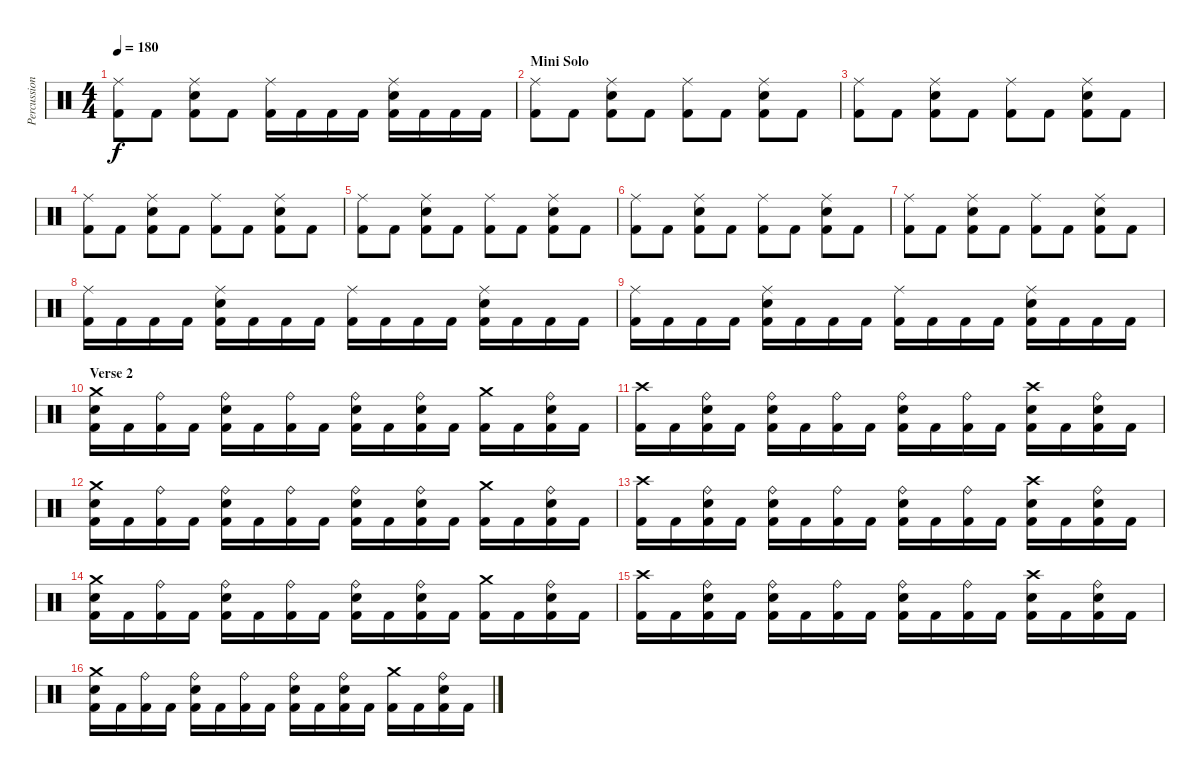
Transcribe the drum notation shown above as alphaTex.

\track ("Percussion" "Percussion") {instrument percussion}
\staff {score}
\articulation defaults
\ts (4 4)
\tempo 180
\clef neutral
\ks c
("Ride (middle)" "Kick (hit) 2").8{dy f} "Kick (hit) 2".8 ("Ride (middle)" "Electric Snare (hit)" "Kick (hit) 2").8 "Kick (hit) 2".8 ("Ride (middle)" "Kick (hit) 2").16 "Kick (hit) 2".16 "Kick (hit) 2".16 "Kick (hit) 2".16 ("Ride (middle)" "Electric Snare (hit)" "Kick (hit) 2").16 "Kick (hit) 2".16 "Kick (hit) 2".16 "Kick (hit) 2".16 |
\section ("" "Mini Solo")
("Ride (middle)" "Kick (hit) 2").8 "Kick (hit) 2".8 ("Ride (middle)" "Electric Snare (hit)" "Kick (hit) 2").8 "Kick (hit) 2".8 ("Ride (middle)" "Kick (hit) 2").8 "Kick (hit) 2".8 ("Ride (middle)" "Electric Snare (hit)" "Kick (hit) 2").8 "Kick (hit) 2".8 |
("Ride (middle)" "Kick (hit) 2").8 "Kick (hit) 2".8 ("Ride (middle)" "Electric Snare (hit)" "Kick (hit) 2").8 "Kick (hit) 2".8 ("Ride (middle)" "Kick (hit) 2").8 "Kick (hit) 2".8 ("Ride (middle)" "Electric Snare (hit)" "Kick (hit) 2").8 "Kick (hit) 2".8 |
("Ride (middle)" "Kick (hit) 2").8 "Kick (hit) 2".8 ("Ride (middle)" "Electric Snare (hit)" "Kick (hit) 2").8 "Kick (hit) 2".8 ("Ride (middle)" "Kick (hit) 2").8 "Kick (hit) 2".8 ("Ride (middle)" "Electric Snare (hit)" "Kick (hit) 2").8 "Kick (hit) 2".8 |
("Ride (middle)" "Kick (hit) 2").8 "Kick (hit) 2".8 ("Ride (middle)" "Electric Snare (hit)" "Kick (hit) 2").8 "Kick (hit) 2".8 ("Ride (middle)" "Kick (hit) 2").8 "Kick (hit) 2".8 ("Ride (middle)" "Electric Snare (hit)" "Kick (hit) 2").8 "Kick (hit) 2".8 |
("Ride (middle)" "Kick (hit) 2").8 "Kick (hit) 2".8 ("Ride (middle)" "Electric Snare (hit)" "Kick (hit) 2").8 "Kick (hit) 2".8 ("Ride (middle)" "Kick (hit) 2").8 "Kick (hit) 2".8 ("Ride (middle)" "Electric Snare (hit)" "Kick (hit) 2").8 "Kick (hit) 2".8 |
("Ride (middle)" "Kick (hit) 2").8 "Kick (hit) 2".8 ("Ride (middle)" "Electric Snare (hit)" "Kick (hit) 2").8 "Kick (hit) 2".8 ("Ride (middle)" "Kick (hit) 2").8 "Kick (hit) 2".8 ("Ride (middle)" "Electric Snare (hit)" "Kick (hit) 2").8 "Kick (hit) 2".8 |
("Ride (middle)" "Kick (hit) 2").16 "Kick (hit) 2".16 "Kick (hit) 2".16 "Kick (hit) 2".16 ("Ride (middle)" "Electric Snare (hit)" "Kick (hit) 2").16 "Kick (hit) 2".16 "Kick (hit) 2".16 "Kick (hit) 2".16 ("Ride (middle)" "Kick (hit) 2").16 "Kick (hit) 2".16 "Kick (hit) 2".16 "Kick (hit) 2".16 ("Ride (middle)" "Electric Snare (hit)" "Kick (hit) 2").16 "Kick (hit) 2".16 "Kick (hit) 2".16 "Kick (hit) 2".16 |
("Ride (middle)" "Kick (hit) 2").16 "Kick (hit) 2".16 "Kick (hit) 2".16 "Kick (hit) 2".16 ("Ride (middle)" "Electric Snare (hit)" "Kick (hit) 2").16 "Kick (hit) 2".16 "Kick (hit) 2".16 "Kick (hit) 2".16 ("Ride (middle)" "Kick (hit) 2").16 "Kick (hit) 2".16 "Kick (hit) 2".16 "Kick (hit) 2".16 ("Ride (middle)" "Electric Snare (hit)" "Kick (hit) 2").16 "Kick (hit) 2".16 "Kick (hit) 2".16 "Kick (hit) 2".16 |
\section ("" "Verse 2")
("Crash medium (hit)" "Electric Snare (hit)" "Kick (hit) 2").16 "Kick (hit) 2".16 ("Ride (bell)" "Kick (hit) 2").16 "Kick (hit) 2".16 ("Ride (bell)" "Electric Snare (hit)" "Kick (hit) 2").16 "Kick (hit) 2".16 ("Ride (bell)" "Kick (hit) 2").16 "Kick (hit) 2".16 ("Ride (bell)" "Electric Snare (hit)" "Kick (hit) 2").16 "Kick (hit) 2".16 ("Ride (bell)" "Electric Snare (hit)" "Kick (hit) 2").16 "Kick (hit) 2".16 ("Crash medium (hit)" "Kick (hit) 2").16 "Kick (hit) 2".16 ("Ride (bell)" "Electric Snare (hit)" "Kick (hit) 2").16 "Kick (hit) 2".16 |
("Crash high (hit)" "Kick (hit) 2").16 "Kick (hit) 2".16 ("Ride (bell)" "Electric Snare (hit)" "Kick (hit) 2").16 "Kick (hit) 2".16 ("Ride (bell)" "Electric Snare (hit)" "Kick (hit) 2").16 "Kick (hit) 2".16 ("Ride (bell)" "Kick (hit) 2").16 "Kick (hit) 2".16 ("Ride (bell)" "Electric Snare (hit)" "Kick (hit) 2").16 "Kick (hit) 2".16 ("Ride (bell)" "Kick (hit) 2").16 "Kick (hit) 2".16 ("Crash high (hit)" "Electric Snare (hit)" "Kick (hit) 2").16 "Kick (hit) 2".16 ("Ride (bell)" "Electric Snare (hit)" "Kick (hit) 2").16 "Kick (hit) 2".16 |
("Crash medium (hit)" "Electric Snare (hit)" "Kick (hit) 2").16 "Kick (hit) 2".16 ("Ride (bell)" "Kick (hit) 2").16 "Kick (hit) 2".16 ("Ride (bell)" "Electric Snare (hit)" "Kick (hit) 2").16 "Kick (hit) 2".16 ("Ride (bell)" "Kick (hit) 2").16 "Kick (hit) 2".16 ("Ride (bell)" "Electric Snare (hit)" "Kick (hit) 2").16 "Kick (hit) 2".16 ("Ride (bell)" "Electric Snare (hit)" "Kick (hit) 2").16 "Kick (hit) 2".16 ("Crash medium (hit)" "Kick (hit) 2").16 "Kick (hit) 2".16 ("Ride (bell)" "Electric Snare (hit)" "Kick (hit) 2").16 "Kick (hit) 2".16 |
("Crash high (hit)" "Kick (hit) 2").16 "Kick (hit) 2".16 ("Ride (bell)" "Electric Snare (hit)" "Kick (hit) 2").16 "Kick (hit) 2".16 ("Ride (bell)" "Electric Snare (hit)" "Kick (hit) 2").16 "Kick (hit) 2".16 ("Ride (bell)" "Kick (hit) 2").16 "Kick (hit) 2".16 ("Ride (bell)" "Electric Snare (hit)" "Kick (hit) 2").16 "Kick (hit) 2".16 ("Ride (bell)" "Kick (hit) 2").16 "Kick (hit) 2".16 ("Crash high (hit)" "Electric Snare (hit)" "Kick (hit) 2").16 "Kick (hit) 2".16 ("Ride (bell)" "Electric Snare (hit)" "Kick (hit) 2").16 "Kick (hit) 2".16 |
("Crash medium (hit)" "Electric Snare (hit)" "Kick (hit) 2").16 "Kick (hit) 2".16 ("Ride (bell)" "Kick (hit) 2").16 "Kick (hit) 2".16 ("Ride (bell)" "Electric Snare (hit)" "Kick (hit) 2").16 "Kick (hit) 2".16 ("Ride (bell)" "Kick (hit) 2").16 "Kick (hit) 2".16 ("Ride (bell)" "Electric Snare (hit)" "Kick (hit) 2").16 "Kick (hit) 2".16 ("Ride (bell)" "Electric Snare (hit)" "Kick (hit) 2").16 "Kick (hit) 2".16 ("Crash medium (hit)" "Kick (hit) 2").16 "Kick (hit) 2".16 ("Ride (bell)" "Electric Snare (hit)" "Kick (hit) 2").16 "Kick (hit) 2".16 |
("Crash high (hit)" "Kick (hit) 2").16 "Kick (hit) 2".16 ("Ride (bell)" "Electric Snare (hit)" "Kick (hit) 2").16 "Kick (hit) 2".16 ("Ride (bell)" "Electric Snare (hit)" "Kick (hit) 2").16 "Kick (hit) 2".16 ("Ride (bell)" "Kick (hit) 2").16 "Kick (hit) 2".16 ("Ride (bell)" "Electric Snare (hit)" "Kick (hit) 2").16 "Kick (hit) 2".16 ("Ride (bell)" "Kick (hit) 2").16 "Kick (hit) 2".16 ("Crash high (hit)" "Electric Snare (hit)" "Kick (hit) 2").16 "Kick (hit) 2".16 ("Ride (bell)" "Electric Snare (hit)" "Kick (hit) 2").16 "Kick (hit) 2".16 |
("Crash medium (hit)" "Electric Snare (hit)" "Kick (hit) 2").16 "Kick (hit) 2".16 ("Ride (bell)" "Kick (hit) 2").16 "Kick (hit) 2".16 ("Ride (bell)" "Electric Snare (hit)" "Kick (hit) 2").16 "Kick (hit) 2".16 ("Ride (bell)" "Kick (hit) 2").16 "Kick (hit) 2".16 ("Ride (bell)" "Electric Snare (hit)" "Kick (hit) 2").16 "Kick (hit) 2".16 ("Ride (bell)" "Electric Snare (hit)" "Kick (hit) 2").16 "Kick (hit) 2".16 ("Crash medium (hit)" "Kick (hit) 2").16 "Kick (hit) 2".16 ("Ride (bell)" "Electric Snare (hit)" "Kick (hit) 2").16 "Kick (hit) 2".16
